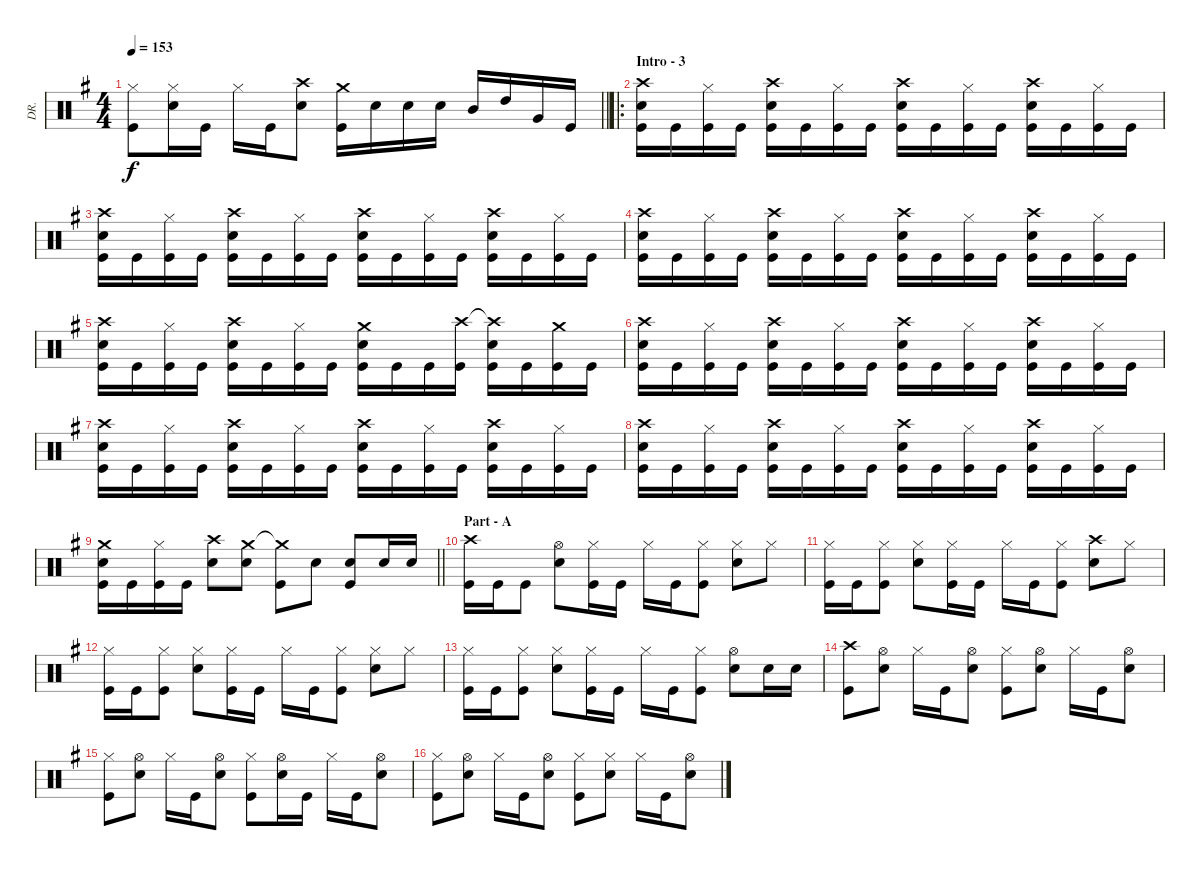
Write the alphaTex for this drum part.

\track ("DR." "DR.") {instrument percussion}
\staff {score}
\articulation defaults
\ts (4 4)
\tempo 153
\clef neutral
\barLineRight lightlight
\ks g
("Hi-Hat (closed)" "Kick (hit)").8{dy f} ("Hi-Hat (closed)" "Snare (hit) 2").16 "Kick (hit)".16 "Hi-Hat (closed)".16 "Kick (hit)".16 ("Crash high (hit)" "Snare (hit) 2").8 ("Crash medium (hit)" "Kick (hit)").16 "Snare (hit) 2".16 "Snare (hit) 2".16 "Snare (hit) 2".16 "Mid Tom (hit)".16 "High Tom (hit)".16 "Very Low Tom (hit)".16 "Kick (hit)".16 |
\ro
\section ("" "Intro - 3")
("Crash high (hit)" "Snare (hit) 2" "Kick (hit)").16 "Kick (hit)".16 ("Hi-Hat (closed)" "Kick (hit)").16 "Kick (hit)".16 ("Crash high (hit)" "Snare (hit) 2" "Kick (hit)").16 "Kick (hit)".16 ("Hi-Hat (closed)" "Kick (hit)").16 "Kick (hit)".16 ("Crash high (hit)" "Snare (hit) 2" "Kick (hit)").16 "Kick (hit)".16 ("Hi-Hat (closed)" "Kick (hit)").16 "Kick (hit)".16 ("Crash high (hit)" "Snare (hit) 2" "Kick (hit)").16 "Kick (hit)".16 ("Hi-Hat (closed)" "Kick (hit)").16 "Kick (hit)".16 |
("Crash high (hit)" "Snare (hit) 2" "Kick (hit)").16 "Kick (hit)".16 ("Hi-Hat (closed)" "Kick (hit)").16 "Kick (hit)".16 ("Crash high (hit)" "Snare (hit) 2" "Kick (hit)").16 "Kick (hit)".16 ("Hi-Hat (closed)" "Kick (hit)").16 "Kick (hit)".16 ("Crash high (hit)" "Snare (hit) 2" "Kick (hit)").16 "Kick (hit)".16 ("Hi-Hat (closed)" "Kick (hit)").16 "Kick (hit)".16 ("Crash high (hit)" "Snare (hit) 2" "Kick (hit)").16 "Kick (hit)".16 ("Hi-Hat (closed)" "Kick (hit)").16 "Kick (hit)".16 |
("Crash high (hit)" "Snare (hit) 2" "Kick (hit)").16 "Kick (hit)".16 ("Hi-Hat (closed)" "Kick (hit)").16 "Kick (hit)".16 ("Crash high (hit)" "Snare (hit) 2" "Kick (hit)").16 "Kick (hit)".16 ("Hi-Hat (closed)" "Kick (hit)").16 "Kick (hit)".16 ("Crash high (hit)" "Snare (hit) 2" "Kick (hit)").16 "Kick (hit)".16 ("Hi-Hat (closed)" "Kick (hit)").16 "Kick (hit)".16 ("Crash high (hit)" "Snare (hit) 2" "Kick (hit)").16 "Kick (hit)".16 ("Hi-Hat (closed)" "Kick (hit)").16 "Kick (hit)".16 |
("Crash high (hit)" "Snare (hit) 2" "Kick (hit)").16 "Kick (hit)".16 ("Hi-Hat (closed)" "Kick (hit)").16 "Kick (hit)".16 ("Crash high (hit)" "Snare (hit) 2" "Kick (hit)").16 "Kick (hit)".16 ("Hi-Hat (closed)" "Kick (hit)").16 "Kick (hit)".16 ("Crash medium (hit)" "Snare (hit) 2" "Kick (hit)").16 "Kick (hit)".16 "Kick (hit)".16 ("Crash high (hit)" "Kick (hit)").16 ("Crash high (hit)"{t} "Snare (hit) 2" "Kick (hit)").16 "Kick (hit)".16 ("Crash medium (hit)" "Kick (hit)").16 "Kick (hit)".16 |
("Crash high (hit)" "Snare (hit) 2" "Kick (hit)").16 "Kick (hit)".16 ("Hi-Hat (closed)" "Kick (hit)").16 "Kick (hit)".16 ("Crash high (hit)" "Snare (hit) 2" "Kick (hit)").16 "Kick (hit)".16 ("Hi-Hat (closed)" "Kick (hit)").16 "Kick (hit)".16 ("Crash high (hit)" "Snare (hit) 2" "Kick (hit)").16 "Kick (hit)".16 ("Hi-Hat (closed)" "Kick (hit)").16 "Kick (hit)".16 ("Crash high (hit)" "Snare (hit) 2" "Kick (hit)").16 "Kick (hit)".16 ("Hi-Hat (closed)" "Kick (hit)").16 "Kick (hit)".16 |
("Crash high (hit)" "Snare (hit) 2" "Kick (hit)").16 "Kick (hit)".16 ("Hi-Hat (closed)" "Kick (hit)").16 "Kick (hit)".16 ("Crash high (hit)" "Snare (hit) 2" "Kick (hit)").16 "Kick (hit)".16 ("Hi-Hat (closed)" "Kick (hit)").16 "Kick (hit)".16 ("Crash high (hit)" "Snare (hit) 2" "Kick (hit)").16 "Kick (hit)".16 ("Hi-Hat (closed)" "Kick (hit)").16 "Kick (hit)".16 ("Crash high (hit)" "Snare (hit) 2" "Kick (hit)").16 "Kick (hit)".16 ("Hi-Hat (closed)" "Kick (hit)").16 "Kick (hit)".16 |
("Crash high (hit)" "Snare (hit) 2" "Kick (hit)").16 "Kick (hit)".16 ("Hi-Hat (closed)" "Kick (hit)").16 "Kick (hit)".16 ("Crash high (hit)" "Snare (hit) 2" "Kick (hit)").16 "Kick (hit)".16 ("Hi-Hat (closed)" "Kick (hit)").16 "Kick (hit)".16 ("Crash high (hit)" "Snare (hit) 2" "Kick (hit)").16 "Kick (hit)".16 ("Hi-Hat (closed)" "Kick (hit)").16 "Kick (hit)".16 ("Crash high (hit)" "Snare (hit) 2" "Kick (hit)").16 "Kick (hit)".16 ("Hi-Hat (closed)" "Kick (hit)").16 "Kick (hit)".16 |
\barLineRight lightlight
("Crash medium (hit)" "Snare (hit) 2" "Kick (hit)").16 "Kick (hit)".16 ("Hi-Hat (closed)" "Kick (hit)").16 "Kick (hit)".16 ("Crash high (hit)" "Snare (hit) 2").8 ("Crash medium (hit)" "Snare (hit) 2").8 ("Crash medium (hit)"{t} "Kick (hit)").8 "Snare (hit) 2".8 ("Snare (hit) 2" "Kick (hit)").8 "Snare (hit) 2".16 "Snare (hit) 2".16 |
\section ("" "Part - A")
("Crash high (hit)" "Kick (hit)").16 "Kick (hit)".16 "Kick (hit)".8 ("Hi-Hat (open)" "Snare (hit) 2").8 ("Hi-Hat (closed)" "Kick (hit)").16 "Kick (hit)".16 "Hi-Hat (closed)".16 "Kick (hit)".16 ("Hi-Hat (closed)" "Kick (hit)").8 ("Hi-Hat (closed)" "Snare (hit) 2").8 "Hi-Hat (closed)".8 |
("Hi-Hat (closed)" "Kick (hit)").16 "Kick (hit)".16 ("Hi-Hat (closed)" "Kick (hit)").8 ("Hi-Hat (closed)" "Snare (hit) 2").8 ("Hi-Hat (closed)" "Kick (hit)").16 "Kick (hit)".16 "Hi-Hat (closed)".16 "Kick (hit)".16 ("Hi-Hat (closed)" "Kick (hit)").8 ("Crash high (hit)" "Snare (hit) 2").8 "Hi-Hat (closed)".8 |
("Hi-Hat (closed)" "Kick (hit)").16 "Kick (hit)".16 ("Hi-Hat (closed)" "Kick (hit)").8 ("Hi-Hat (closed)" "Snare (hit) 2").8 ("Hi-Hat (closed)" "Kick (hit)").16 "Kick (hit)".16 "Hi-Hat (closed)".16 "Kick (hit)".16 ("Hi-Hat (closed)" "Kick (hit)").8 ("Hi-Hat (closed)" "Snare (hit) 2").8 "Hi-Hat (closed)".8 |
("Hi-Hat (closed)" "Kick (hit)").16 "Kick (hit)".16 ("Hi-Hat (closed)" "Kick (hit)").8 ("Hi-Hat (closed)" "Snare (hit) 2").8 ("Hi-Hat (closed)" "Kick (hit)").16 "Kick (hit)".16 "Hi-Hat (closed)".16 "Kick (hit)".16 ("Hi-Hat (closed)" "Kick (hit)").8 ("Hi-Hat (open)" "Snare (hit) 2").8 "Snare (hit) 2".16 "Snare (hit) 2".16 |
("Crash high (hit)" "Kick (hit)").8 ("Hi-Hat (open)" "Snare (hit) 2").8 "Hi-Hat (closed)".16 "Kick (hit)".16 ("Hi-Hat (open)" "Snare (hit) 2").8 ("Hi-Hat (closed)" "Kick (hit)").8 ("Hi-Hat (open)" "Snare (hit) 2").8 "Hi-Hat (closed)".16 "Kick (hit)".16 ("Hi-Hat (open)" "Snare (hit) 2").8 |
("Hi-Hat (closed)" "Kick (hit)").8 ("Hi-Hat (open)" "Snare (hit) 2").8 "Hi-Hat (closed)".16 "Kick (hit)".16 ("Hi-Hat (open)" "Snare (hit) 2").8 ("Hi-Hat (closed)" "Kick (hit)").8 ("Hi-Hat (open)" "Snare (hit) 2").16 "Kick (hit)".16 "Hi-Hat (closed)".16 "Kick (hit)".16 ("Hi-Hat (open)" "Snare (hit) 2").8 |
("Hi-Hat (closed)" "Kick (hit)").8 ("Hi-Hat (open)" "Snare (hit) 2").8 "Hi-Hat (closed)".16 "Kick (hit)".16 ("Hi-Hat (open)" "Snare (hit) 2").8 ("Hi-Hat (closed)" "Kick (hit)").8 ("Hi-Hat (closed)" "Snare (hit) 2").8 "Hi-Hat (closed)".16 "Kick (hit)".16 ("Hi-Hat (open)" "Snare (hit) 2").8
